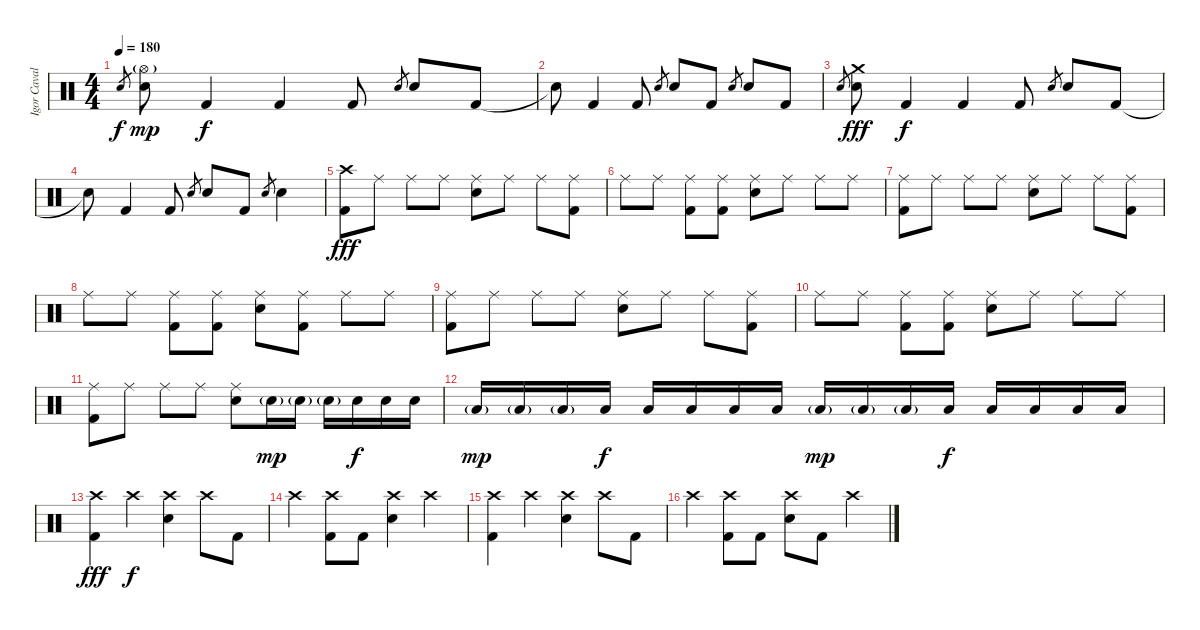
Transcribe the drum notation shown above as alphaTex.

\track ("Igor Cavalera" "Igor Caval") {instrument percussion}
\staff {score}
\articulation defaults
\ts (4 4)
\tempo 180
\clef neutral
\ks c "Electric Snare (hit)".8{gr dy f}
("Hi-Hat (open)"{g} "Electric Snare (hit)").8{dy mp} "Kick (hit) 2".4{dy f} "Kick (hit) 2".4 "Kick (hit) 2".8 "Electric Snare (hit)".8{gr} "Electric Snare (hit)".8 "Kick (hit) 2".8 |
"Snare (hit)"{t}.8 "Kick (hit) 2".4 "Kick (hit) 2".8 "Electric Snare (hit)".8{gr} "Electric Snare (hit)".8 "Kick (hit) 2".8 "Electric Snare (hit)".8{gr} "Electric Snare (hit)".8 "Kick (hit) 2".8 |
"Electric Snare (hit)".8{gr} ("Crash medium (hit)" "Electric Snare (hit)").8{dy fff} "Kick (hit) 2".4{dy f} "Kick (hit) 2".4 "Kick (hit) 2".8 "Electric Snare (hit)".8{gr} "Electric Snare (hit)".8 "Kick (hit) 2".8 |
"Snare (hit)"{t}.8 "Kick (hit) 2".4 "Kick (hit) 2".8 "Electric Snare (hit)".8{gr} "Electric Snare (hit)".8 "Kick (hit) 2".8 "Electric Snare (hit)".8{gr} "Electric Snare (hit)".4 |
("Crash high (hit)" "Kick (hit) 2").8{dy fff} "Ride (middle)".8 "Ride (middle)".8 "Ride (middle)".8 ("Ride (middle)" "Electric Snare (hit)").8 "Ride (middle)".8 "Ride (middle)".8 ("Ride (middle)" "Kick (hit) 2").8 |
"Ride (middle)".8 "Ride (middle)".8 ("Ride (middle)" "Kick (hit) 2").8 ("Ride (middle)" "Kick (hit) 2").8 ("Ride (middle)" "Electric Snare (hit)").8 "Ride (middle)".8 "Ride (middle)".8 "Ride (middle)".8 |
("Ride (middle)" "Kick (hit) 2").8 "Ride (middle)".8 "Ride (middle)".8 "Ride (middle)".8 ("Ride (middle)" "Electric Snare (hit)").8 "Ride (middle)".8 "Ride (middle)".8 ("Ride (middle)" "Kick (hit) 2").8 |
"Ride (middle)".8 "Ride (middle)".8 ("Ride (middle)" "Kick (hit) 2").8 ("Ride (middle)" "Kick (hit) 2").8 ("Ride (middle)" "Electric Snare (hit)").8 ("Ride (middle)" "Kick (hit) 2").8 "Ride (middle)".8 "Ride (middle)".8 |
("Ride (middle)" "Kick (hit) 2").8 "Ride (middle)".8 "Ride (middle)".8 "Ride (middle)".8 ("Ride (middle)" "Electric Snare (hit)").8 "Ride (middle)".8 "Ride (middle)".8 ("Ride (middle)" "Kick (hit) 2").8 |
"Ride (middle)".8 "Ride (middle)".8 ("Ride (middle)" "Kick (hit) 2").8 ("Ride (middle)" "Kick (hit) 2").8 ("Ride (middle)" "Electric Snare (hit)").8 "Ride (middle)".8 "Ride (middle)".8 "Ride (middle)".8 |
("Ride (middle)" "Kick (hit) 2").8 "Ride (middle)".8 "Ride (middle)".8 "Ride (middle)".8 ("Ride (middle)" "Electric Snare (hit)").8 "Electric Snare (hit)"{g}.16{dy mp} "Electric Snare (hit)"{g}.16 "Electric Snare (hit)"{g}.16 "Electric Snare (hit)".16{dy f} "Electric Snare (hit)".16 "Electric Snare (hit)".16 |
"Low Tom (hit)"{g}.16{dy mp} "Low Tom (hit)"{g}.16 "Low Tom (hit)"{g}.16 "Low Tom (hit)".16{dy f} "Low Tom (hit)".16 "Low Tom (hit)".16 "Low Tom (hit)".16 "Low Tom (hit)".16 "Low Floor Tom (hit)"{g}.16{dy mp} "Low Floor Tom (hit)"{g}.16 "Low Floor Tom (hit)"{g}.16 "Low Floor Tom (hit)".16{dy f} "Low Floor Tom (hit)".16 "Low Floor Tom (hit)".16 "Low Floor Tom (hit)".16 "Low Floor Tom (hit)".16 |
("Crash high (hit)" "Kick (hit) 2").4{dy fff} "Crash high (hit)".4{dy f} ("Crash high (hit)" "Electric Snare (hit)").4 "Crash high (hit)".8 "Kick (hit) 2".8 |
"Crash high (hit)".4 ("Crash high (hit)" "Kick (hit) 2").8 "Kick (hit) 2".8 ("Crash high (hit)" "Electric Snare (hit)").4 "Crash high (hit)".4 |
("Crash high (hit)" "Kick (hit) 2").4 "Crash high (hit)".4 ("Crash high (hit)" "Electric Snare (hit)").4 "Crash high (hit)".8 "Kick (hit) 2".8 |
"Crash high (hit)".4 ("Crash high (hit)" "Kick (hit) 2").8 "Kick (hit) 2".8 ("Crash high (hit)" "Electric Snare (hit)").8 "Kick (hit) 2".8 "Crash high (hit)".4
